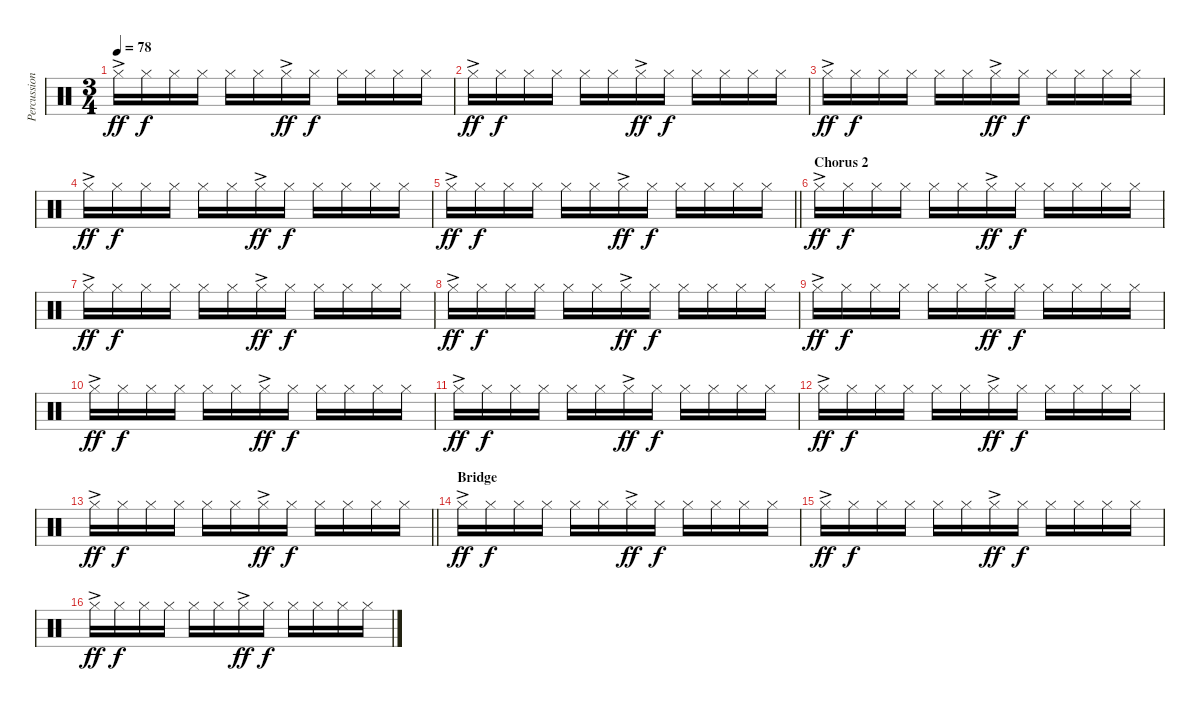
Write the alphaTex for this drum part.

\track ("Percussion" "Percussion") {instrument percussion}
\staff {score}
\articulation defaults
\ts (3 4)
\tempo 78
\clef neutral
\ks c "Hi-Hat (closed)"{ac}.16{dy ff} "Hi-Hat (closed)".16{dy f} "Hi-Hat (closed)".16 "Hi-Hat (closed)".16 "Hi-Hat (closed)".16 "Hi-Hat (closed)".16 "Hi-Hat (closed)"{ac}.16{dy ff} "Hi-Hat (closed)".16{dy f} "Hi-Hat (closed)".16 "Hi-Hat (closed)".16 "Hi-Hat (closed)".16 "Hi-Hat (closed)".16
|
"Hi-Hat (closed)"{ac}.16{dy ff} "Hi-Hat (closed)".16{dy f} "Hi-Hat (closed)".16 "Hi-Hat (closed)".16 "Hi-Hat (closed)".16 "Hi-Hat (closed)".16 "Hi-Hat (closed)"{ac}.16{dy ff} "Hi-Hat (closed)".16{dy f} "Hi-Hat (closed)".16 "Hi-Hat (closed)".16 "Hi-Hat (closed)".16 "Hi-Hat (closed)".16 |
"Hi-Hat (closed)"{ac}.16{dy ff} "Hi-Hat (closed)".16{dy f} "Hi-Hat (closed)".16 "Hi-Hat (closed)".16 "Hi-Hat (closed)".16 "Hi-Hat (closed)".16 "Hi-Hat (closed)"{ac}.16{dy ff} "Hi-Hat (closed)".16{dy f} "Hi-Hat (closed)".16 "Hi-Hat (closed)".16 "Hi-Hat (closed)".16 "Hi-Hat (closed)".16 |
"Hi-Hat (closed)"{ac}.16{dy ff} "Hi-Hat (closed)".16{dy f} "Hi-Hat (closed)".16 "Hi-Hat (closed)".16 "Hi-Hat (closed)".16 "Hi-Hat (closed)".16 "Hi-Hat (closed)"{ac}.16{dy ff} "Hi-Hat (closed)".16{dy f} "Hi-Hat (closed)".16 "Hi-Hat (closed)".16 "Hi-Hat (closed)".16 "Hi-Hat (closed)".16 |
\barLineRight lightlight "Hi-Hat (closed)"{ac}.16{dy ff} "Hi-Hat (closed)".16{dy f} "Hi-Hat (closed)".16 "Hi-Hat (closed)".16 "Hi-Hat (closed)".16 "Hi-Hat (closed)".16 "Hi-Hat (closed)"{ac}.16{dy ff} "Hi-Hat (closed)".16{dy f} "Hi-Hat (closed)".16 "Hi-Hat (closed)".16 "Hi-Hat (closed)".16 "Hi-Hat (closed)".16
|
\section ("" "Chorus 2")
"Hi-Hat (closed)"{ac}.16{dy ff} "Hi-Hat (closed)".16{dy f} "Hi-Hat (closed)".16 "Hi-Hat (closed)".16 "Hi-Hat (closed)".16 "Hi-Hat (closed)".16 "Hi-Hat (closed)"{ac}.16{dy ff} "Hi-Hat (closed)".16{dy f} "Hi-Hat (closed)".16 "Hi-Hat (closed)".16 "Hi-Hat (closed)".16 "Hi-Hat (closed)".16 |
"Hi-Hat (closed)"{ac}.16{dy ff} "Hi-Hat (closed)".16{dy f} "Hi-Hat (closed)".16 "Hi-Hat (closed)".16 "Hi-Hat (closed)".16 "Hi-Hat (closed)".16 "Hi-Hat (closed)"{ac}.16{dy ff} "Hi-Hat (closed)".16{dy f} "Hi-Hat (closed)".16 "Hi-Hat (closed)".16 "Hi-Hat (closed)".16 "Hi-Hat (closed)".16 |
"Hi-Hat (closed)"{ac}.16{dy ff} "Hi-Hat (closed)".16{dy f} "Hi-Hat (closed)".16 "Hi-Hat (closed)".16 "Hi-Hat (closed)".16 "Hi-Hat (closed)".16 "Hi-Hat (closed)"{ac}.16{dy ff} "Hi-Hat (closed)".16{dy f} "Hi-Hat (closed)".16 "Hi-Hat (closed)".16 "Hi-Hat (closed)".16 "Hi-Hat (closed)".16 |
"Hi-Hat (closed)"{ac}.16{dy ff} "Hi-Hat (closed)".16{dy f} "Hi-Hat (closed)".16 "Hi-Hat (closed)".16 "Hi-Hat (closed)".16 "Hi-Hat (closed)".16 "Hi-Hat (closed)"{ac}.16{dy ff} "Hi-Hat (closed)".16{dy f} "Hi-Hat (closed)".16 "Hi-Hat (closed)".16 "Hi-Hat (closed)".16 "Hi-Hat (closed)".16 |
"Hi-Hat (closed)"{ac}.16{dy ff} "Hi-Hat (closed)".16{dy f} "Hi-Hat (closed)".16 "Hi-Hat (closed)".16 "Hi-Hat (closed)".16 "Hi-Hat (closed)".16 "Hi-Hat (closed)"{ac}.16{dy ff} "Hi-Hat (closed)".16{dy f} "Hi-Hat (closed)".16 "Hi-Hat (closed)".16 "Hi-Hat (closed)".16 "Hi-Hat (closed)".16 |
"Hi-Hat (closed)"{ac}.16{dy ff} "Hi-Hat (closed)".16{dy f} "Hi-Hat (closed)".16 "Hi-Hat (closed)".16 "Hi-Hat (closed)".16 "Hi-Hat (closed)".16 "Hi-Hat (closed)"{ac}.16{dy ff} "Hi-Hat (closed)".16{dy f} "Hi-Hat (closed)".16 "Hi-Hat (closed)".16 "Hi-Hat (closed)".16 "Hi-Hat (closed)".16 |
"Hi-Hat (closed)"{ac}.16{dy ff} "Hi-Hat (closed)".16{dy f} "Hi-Hat (closed)".16 "Hi-Hat (closed)".16 "Hi-Hat (closed)".16 "Hi-Hat (closed)".16 "Hi-Hat (closed)"{ac}.16{dy ff} "Hi-Hat (closed)".16{dy f} "Hi-Hat (closed)".16 "Hi-Hat (closed)".16 "Hi-Hat (closed)".16 "Hi-Hat (closed)".16 |
\barLineRight lightlight "Hi-Hat (closed)"{ac}.16{dy ff} "Hi-Hat (closed)".16{dy f} "Hi-Hat (closed)".16 "Hi-Hat (closed)".16 "Hi-Hat (closed)".16 "Hi-Hat (closed)".16 "Hi-Hat (closed)"{ac}.16{dy ff} "Hi-Hat (closed)".16{dy f} "Hi-Hat (closed)".16 "Hi-Hat (closed)".16 "Hi-Hat (closed)".16 "Hi-Hat (closed)".16
|
\section ("" "Bridge")
"Hi-Hat (closed)"{ac}.16{dy ff} "Hi-Hat (closed)".16{dy f} "Hi-Hat (closed)".16 "Hi-Hat (closed)".16 "Hi-Hat (closed)".16 "Hi-Hat (closed)".16 "Hi-Hat (closed)"{ac}.16{dy ff} "Hi-Hat (closed)".16{dy f} "Hi-Hat (closed)".16 "Hi-Hat (closed)".16 "Hi-Hat (closed)".16 "Hi-Hat (closed)".16 |
"Hi-Hat (closed)"{ac}.16{dy ff} "Hi-Hat (closed)".16{dy f} "Hi-Hat (closed)".16 "Hi-Hat (closed)".16 "Hi-Hat (closed)".16 "Hi-Hat (closed)".16 "Hi-Hat (closed)"{ac}.16{dy ff} "Hi-Hat (closed)".16{dy f} "Hi-Hat (closed)".16 "Hi-Hat (closed)".16 "Hi-Hat (closed)".16 "Hi-Hat (closed)".16 |
"Hi-Hat (closed)"{ac}.16{dy ff} "Hi-Hat (closed)".16{dy f} "Hi-Hat (closed)".16 "Hi-Hat (closed)".16 "Hi-Hat (closed)".16 "Hi-Hat (closed)".16 "Hi-Hat (closed)"{ac}.16{dy ff} "Hi-Hat (closed)".16{dy f} "Hi-Hat (closed)".16 "Hi-Hat (closed)".16 "Hi-Hat (closed)".16 "Hi-Hat (closed)".16
